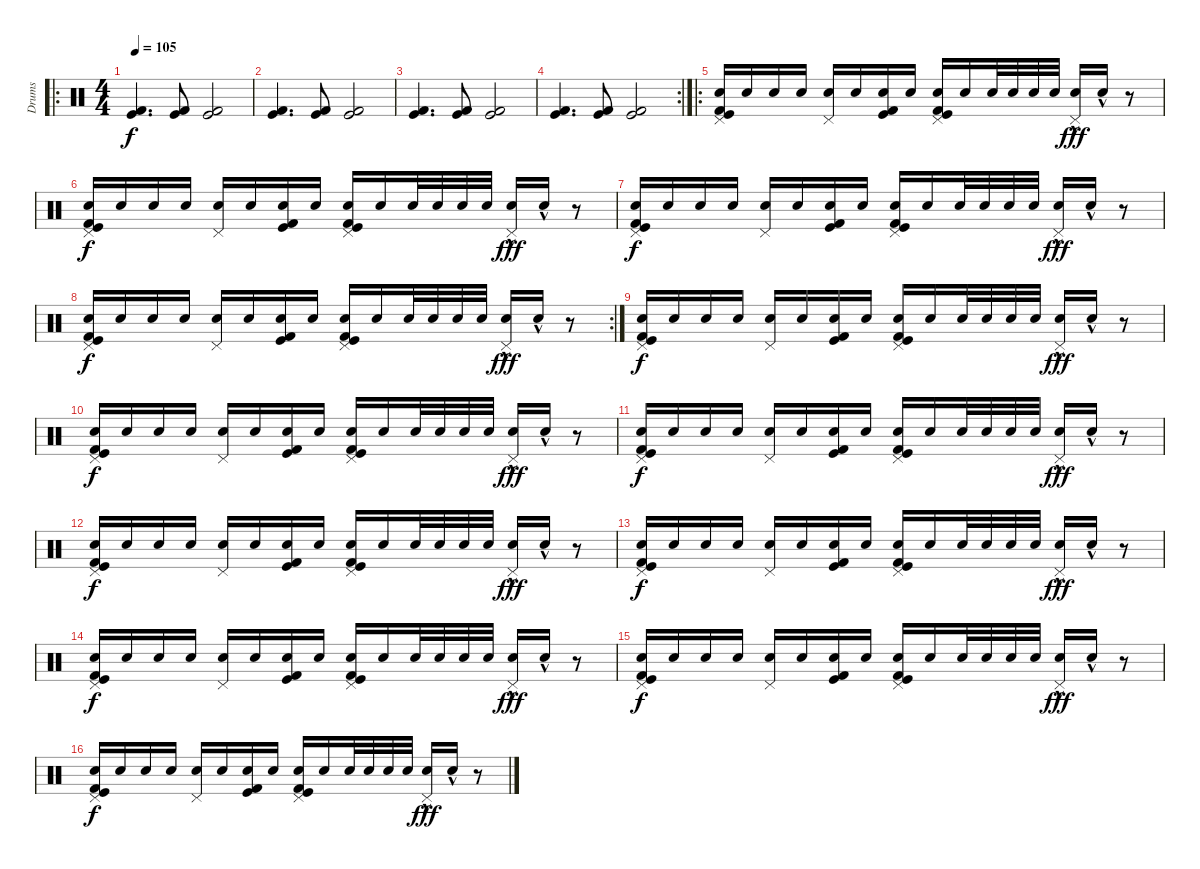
\track ("Drums" "Drums") {instrument percussion}
\staff {score}
\articulation defaults
\ro
\ts (4 4)
\tempo 105
\clef neutral
\ks c
("Kick (hit) 2" "Kick (hit)").4{d dy f} ("Kick (hit)" "Kick (hit) 2").8 ("Kick (hit)" "Kick (hit) 2").2 |
("Kick (hit) 2" "Kick (hit)").4{d} ("Kick (hit)" "Kick (hit) 2").8 ("Kick (hit)" "Kick (hit) 2").2 |
("Kick (hit) 2" "Kick (hit)").4{d} ("Kick (hit)" "Kick (hit) 2").8 ("Kick (hit)" "Kick (hit) 2").2 |
\rc 2
("Kick (hit) 2" "Kick (hit)").4{d} ("Kick (hit)" "Kick (hit) 2").8 ("Kick (hit)" "Kick (hit) 2").2 |
\ro
("Electric Snare (hit)" "Pedal Hi-Hat (hit)" "Kick (hit)" "Kick (hit) 2").16 "Electric Snare (hit)".16 "Electric Snare (hit)".16 "Electric Snare (hit)".16 ("Electric Snare (hit)" "Pedal Hi-Hat (hit)").16 "Electric Snare (hit)".16 ("Electric Snare (hit)" "Kick (hit) 2" "Kick (hit)").16 "Electric Snare (hit)".16 ("Electric Snare (hit)" "Kick (hit) 2" "Kick (hit)" "Pedal Hi-Hat (hit)").16 "Electric Snare (hit)".16 "Electric Snare (hit)".32 "Electric Snare (hit)".32 "Electric Snare (hit)".32 "Electric Snare (hit)".32 ("Electric Snare (hit)"{hac} "Pedal Hi-Hat (hit)").16{dy fff} "Electric Snare (hit)"{hac}.16 r.8 |
("Electric Snare (hit)" "Pedal Hi-Hat (hit)" "Kick (hit)" "Kick (hit) 2").16{dy f} "Electric Snare (hit)".16 "Electric Snare (hit)".16 "Electric Snare (hit)".16 ("Electric Snare (hit)" "Pedal Hi-Hat (hit)").16 "Electric Snare (hit)".16 ("Electric Snare (hit)" "Kick (hit) 2" "Kick (hit)").16 "Electric Snare (hit)".16 ("Electric Snare (hit)" "Kick (hit) 2" "Kick (hit)" "Pedal Hi-Hat (hit)").16 "Electric Snare (hit)".16 "Electric Snare (hit)".32 "Electric Snare (hit)".32 "Electric Snare (hit)".32 "Electric Snare (hit)".32 ("Electric Snare (hit)"{hac} "Pedal Hi-Hat (hit)").16{dy fff} "Electric Snare (hit)"{hac}.16 r.8 |
("Electric Snare (hit)" "Pedal Hi-Hat (hit)" "Kick (hit)" "Kick (hit) 2").16{dy f} "Electric Snare (hit)".16 "Electric Snare (hit)".16 "Electric Snare (hit)".16 ("Electric Snare (hit)" "Pedal Hi-Hat (hit)").16 "Electric Snare (hit)".16 ("Electric Snare (hit)" "Kick (hit) 2" "Kick (hit)").16 "Electric Snare (hit)".16 ("Electric Snare (hit)" "Kick (hit) 2" "Kick (hit)" "Pedal Hi-Hat (hit)").16 "Electric Snare (hit)".16 "Electric Snare (hit)".32 "Electric Snare (hit)".32 "Electric Snare (hit)".32 "Electric Snare (hit)".32 ("Electric Snare (hit)"{hac} "Pedal Hi-Hat (hit)").16{dy fff} "Electric Snare (hit)"{hac}.16 r.8 |
\rc 2
("Electric Snare (hit)" "Pedal Hi-Hat (hit)" "Kick (hit)" "Kick (hit) 2").16{dy f} "Electric Snare (hit)".16 "Electric Snare (hit)".16 "Electric Snare (hit)".16 ("Electric Snare (hit)" "Pedal Hi-Hat (hit)").16 "Electric Snare (hit)".16 ("Electric Snare (hit)" "Kick (hit) 2" "Kick (hit)").16 "Electric Snare (hit)".16 ("Electric Snare (hit)" "Kick (hit) 2" "Kick (hit)" "Pedal Hi-Hat (hit)").16 "Electric Snare (hit)".16 "Electric Snare (hit)".32 "Electric Snare (hit)".32 "Electric Snare (hit)".32 "Electric Snare (hit)".32 ("Electric Snare (hit)"{hac} "Pedal Hi-Hat (hit)").16{dy fff} "Electric Snare (hit)"{hac}.16 r.8 |
("Electric Snare (hit)" "Pedal Hi-Hat (hit)" "Kick (hit)" "Kick (hit) 2").16{dy f} "Electric Snare (hit)".16 "Electric Snare (hit)".16 "Electric Snare (hit)".16 ("Electric Snare (hit)" "Pedal Hi-Hat (hit)").16 "Electric Snare (hit)".16 ("Electric Snare (hit)" "Kick (hit) 2" "Kick (hit)").16 "Electric Snare (hit)".16 ("Electric Snare (hit)" "Kick (hit) 2" "Kick (hit)" "Pedal Hi-Hat (hit)").16 "Electric Snare (hit)".16 "Electric Snare (hit)".32 "Electric Snare (hit)".32 "Electric Snare (hit)".32 "Electric Snare (hit)".32 ("Electric Snare (hit)"{hac} "Pedal Hi-Hat (hit)").16{dy fff} "Electric Snare (hit)"{hac}.16 r.8 |
("Electric Snare (hit)" "Pedal Hi-Hat (hit)" "Kick (hit)" "Kick (hit) 2").16{dy f} "Electric Snare (hit)".16 "Electric Snare (hit)".16 "Electric Snare (hit)".16 ("Electric Snare (hit)" "Pedal Hi-Hat (hit)").16 "Electric Snare (hit)".16 ("Electric Snare (hit)" "Kick (hit) 2" "Kick (hit)").16 "Electric Snare (hit)".16 ("Electric Snare (hit)" "Kick (hit) 2" "Kick (hit)" "Pedal Hi-Hat (hit)").16 "Electric Snare (hit)".16 "Electric Snare (hit)".32 "Electric Snare (hit)".32 "Electric Snare (hit)".32 "Electric Snare (hit)".32 ("Electric Snare (hit)"{hac} "Pedal Hi-Hat (hit)").16{dy fff} "Electric Snare (hit)"{hac}.16 r.8 |
("Electric Snare (hit)" "Pedal Hi-Hat (hit)" "Kick (hit)" "Kick (hit) 2").16{dy f} "Electric Snare (hit)".16 "Electric Snare (hit)".16 "Electric Snare (hit)".16 ("Electric Snare (hit)" "Pedal Hi-Hat (hit)").16 "Electric Snare (hit)".16 ("Electric Snare (hit)" "Kick (hit) 2" "Kick (hit)").16 "Electric Snare (hit)".16 ("Electric Snare (hit)" "Kick (hit) 2" "Kick (hit)" "Pedal Hi-Hat (hit)").16 "Electric Snare (hit)".16 "Electric Snare (hit)".32 "Electric Snare (hit)".32 "Electric Snare (hit)".32 "Electric Snare (hit)".32 ("Electric Snare (hit)"{hac} "Pedal Hi-Hat (hit)").16{dy fff} "Electric Snare (hit)"{hac}.16 r.8 |
("Electric Snare (hit)" "Pedal Hi-Hat (hit)" "Kick (hit)" "Kick (hit) 2").16{dy f} "Electric Snare (hit)".16 "Electric Snare (hit)".16 "Electric Snare (hit)".16 ("Electric Snare (hit)" "Pedal Hi-Hat (hit)").16 "Electric Snare (hit)".16 ("Electric Snare (hit)" "Kick (hit) 2" "Kick (hit)").16 "Electric Snare (hit)".16 ("Electric Snare (hit)" "Kick (hit) 2" "Kick (hit)" "Pedal Hi-Hat (hit)").16 "Electric Snare (hit)".16 "Electric Snare (hit)".32 "Electric Snare (hit)".32 "Electric Snare (hit)".32 "Electric Snare (hit)".32 ("Electric Snare (hit)"{hac} "Pedal Hi-Hat (hit)").16{dy fff} "Electric Snare (hit)"{hac}.16 r.8 |
("Electric Snare (hit)" "Pedal Hi-Hat (hit)" "Kick (hit)" "Kick (hit) 2").16{dy f} "Electric Snare (hit)".16 "Electric Snare (hit)".16 "Electric Snare (hit)".16 ("Electric Snare (hit)" "Pedal Hi-Hat (hit)").16 "Electric Snare (hit)".16 ("Electric Snare (hit)" "Kick (hit) 2" "Kick (hit)").16 "Electric Snare (hit)".16 ("Electric Snare (hit)" "Kick (hit) 2" "Kick (hit)" "Pedal Hi-Hat (hit)").16 "Electric Snare (hit)".16 "Electric Snare (hit)".32 "Electric Snare (hit)".32 "Electric Snare (hit)".32 "Electric Snare (hit)".32 ("Electric Snare (hit)"{hac} "Pedal Hi-Hat (hit)").16{dy fff} "Electric Snare (hit)"{hac}.16 r.8 |
("Electric Snare (hit)" "Pedal Hi-Hat (hit)" "Kick (hit)" "Kick (hit) 2").16{dy f} "Electric Snare (hit)".16 "Electric Snare (hit)".16 "Electric Snare (hit)".16 ("Electric Snare (hit)" "Pedal Hi-Hat (hit)").16 "Electric Snare (hit)".16 ("Electric Snare (hit)" "Kick (hit) 2" "Kick (hit)").16 "Electric Snare (hit)".16 ("Electric Snare (hit)" "Kick (hit) 2" "Kick (hit)" "Pedal Hi-Hat (hit)").16 "Electric Snare (hit)".16 "Electric Snare (hit)".32 "Electric Snare (hit)".32 "Electric Snare (hit)".32 "Electric Snare (hit)".32 ("Electric Snare (hit)"{hac} "Pedal Hi-Hat (hit)").16{dy fff} "Electric Snare (hit)"{hac}.16 r.8 |
("Electric Snare (hit)" "Pedal Hi-Hat (hit)" "Kick (hit)" "Kick (hit) 2").16{dy f} "Electric Snare (hit)".16 "Electric Snare (hit)".16 "Electric Snare (hit)".16 ("Electric Snare (hit)" "Pedal Hi-Hat (hit)").16 "Electric Snare (hit)".16 ("Electric Snare (hit)" "Kick (hit) 2" "Kick (hit)").16 "Electric Snare (hit)".16 ("Electric Snare (hit)" "Kick (hit) 2" "Kick (hit)" "Pedal Hi-Hat (hit)").16 "Electric Snare (hit)".16 "Electric Snare (hit)".32 "Electric Snare (hit)".32 "Electric Snare (hit)".32 "Electric Snare (hit)".32 ("Electric Snare (hit)"{hac} "Pedal Hi-Hat (hit)").16{dy fff} "Electric Snare (hit)"{hac}.16 r.8 |
("Electric Snare (hit)" "Pedal Hi-Hat (hit)" "Kick (hit)" "Kick (hit) 2").16{dy f} "Electric Snare (hit)".16 "Electric Snare (hit)".16 "Electric Snare (hit)".16 ("Electric Snare (hit)" "Pedal Hi-Hat (hit)").16 "Electric Snare (hit)".16 ("Electric Snare (hit)" "Kick (hit) 2" "Kick (hit)").16 "Electric Snare (hit)".16 ("Electric Snare (hit)" "Kick (hit) 2" "Kick (hit)" "Pedal Hi-Hat (hit)").16 "Electric Snare (hit)".16 "Electric Snare (hit)".32 "Electric Snare (hit)".32 "Electric Snare (hit)".32 "Electric Snare (hit)".32 ("Electric Snare (hit)"{hac} "Pedal Hi-Hat (hit)").16{dy fff} "Electric Snare (hit)"{hac}.16 r.8
